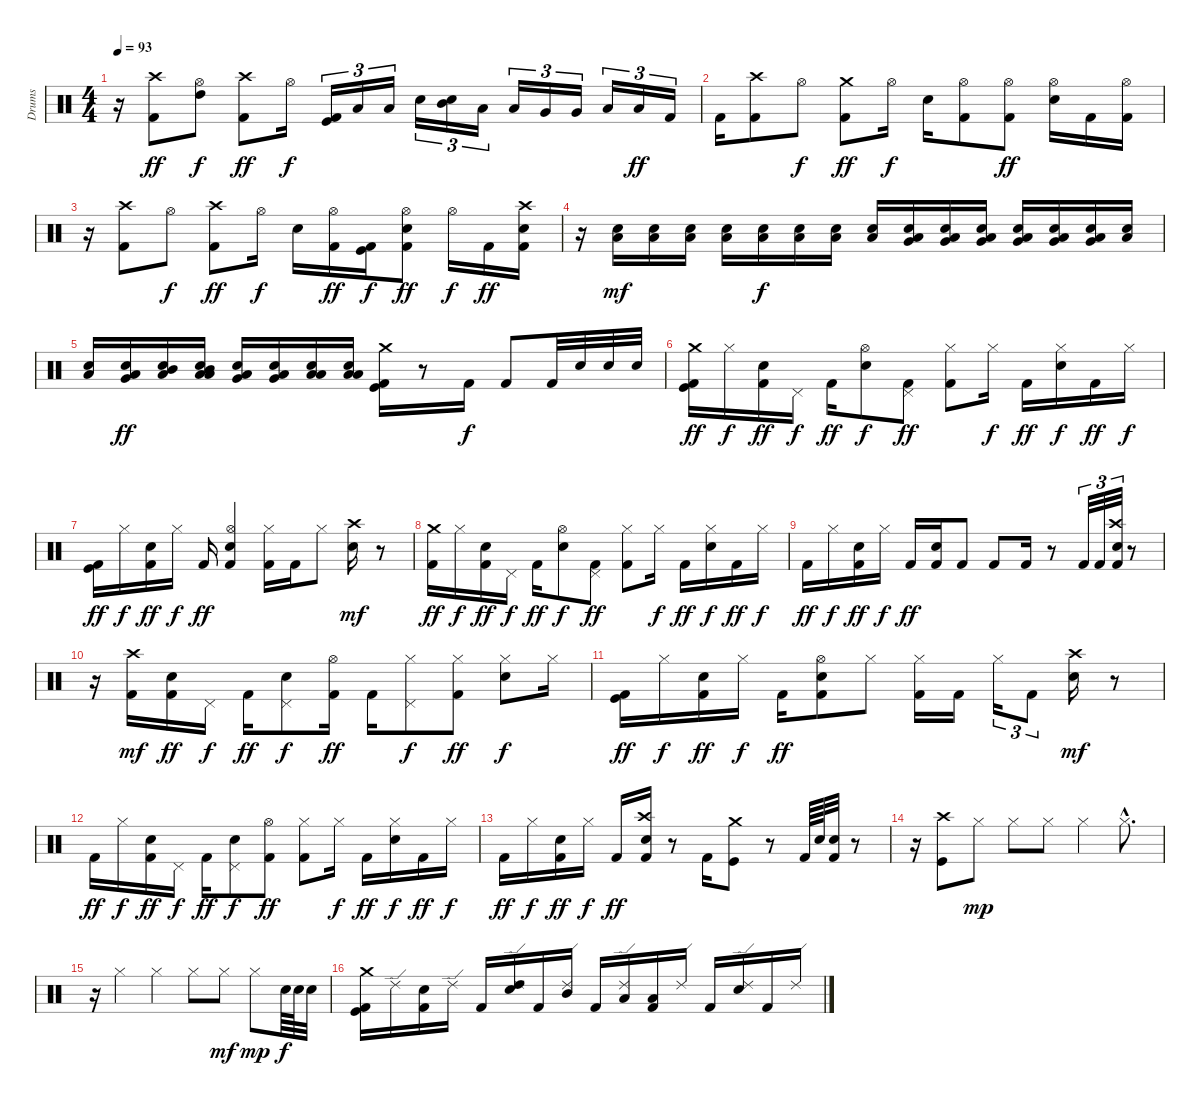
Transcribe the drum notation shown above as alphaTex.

\track ("Drums" "Drums") {instrument percussion}
\staff {score}
\articulation defaults
\ts (4 4)
\tempo 93
\clef neutral
\ks c
r.16{dy ff} ("Kick (hit) 2" "Crash high (hit)").8 ("Hi-Hat (open)" "High Tom (hit)").8{dy f} ("Crash high (hit)" "Kick (hit) 2").8{dy ff} "Hi-Hat (open)".16{dy f} ("Kick (hit) 2" "Kick (hit)").16{tu (3 2)} "Low Tom (hit)".16{tu (3 2)} "Low Tom (hit)".16{tu (3 2)} "Electric Snare (hit)".16{tu (3 2)} ("Electric Snare (hit)" "Mid Tom (hit)").16{tu (3 2)} "Low Tom (hit)".16{tu (3 2)} "Low Tom (hit)".16{tu (3 2)} "Very Low Tom (hit)".16{tu (3 2)} "Very Low Tom (hit)".16{tu (3 2)} "Low Floor Tom (hit)".16{tu (3 2)} "Low Floor Tom (hit)".16{tu (3 2) dy ff} "Kick (hit) 2".16{tu (3 2)} |
"Kick (hit) 2".16 ("Crash high (hit)" "Kick (hit) 2").8 "Hi-Hat (open)".8{dy f} ("Crash medium (hit)" "Kick (hit) 2").8{dy ff} "Hi-Hat (open)".16{dy f} "Electric Snare (hit)".16 ("Hi-Hat (open)" "Kick (hit) 2").8 ("Hi-Hat (open)" "Kick (hit) 2").8{dy ff} ("Hi-Hat (open)" "Electric Snare (hit)").16 "Kick (hit) 2".16 ("Kick (hit) 2" "Hi-Hat (open)").16 |
r.16 ("Kick (hit) 2" "Crash high (hit)").8 "Hi-Hat (open)".8{dy f} ("Kick (hit) 2" "Crash high (hit)").8{dy ff} "Hi-Hat (open)".16{dy f} "Electric Snare (hit)".16 ("Kick (hit) 2" "Hi-Hat (open)").16{dy ff} ("Kick (hit)" "Kick (hit) 2").16{dy f} ("Electric Snare (hit)" "Kick (hit) 2" "Hi-Hat (open)").8{dy ff} "Hi-Hat (open)".16{dy f} "Kick (hit) 2".16{dy ff} ("Kick (hit) 2" "Crash high (hit)" "Electric Snare (hit)").16 |
r.16 ("Electric Snare (hit)" "Low Tom (hit)").16{dy mf} ("Electric Snare (hit)" "Low Tom (hit)").16 ("Electric Snare (hit)" "Low Tom (hit)").16 ("Electric Snare (hit)" "Low Tom (hit)").16 ("Electric Snare (hit)" "Low Tom (hit)").16{dy f} ("Electric Snare (hit)" "Low Tom (hit)").16 ("Electric Snare (hit)" "Low Tom (hit)").16 ("Electric Snare (hit)" "Low Tom (hit)").16 ("Very Low Tom (hit)" "Electric Snare (hit)" "Low Tom (hit)").16 ("Very Low Tom (hit)" "Electric Snare (hit)" "Low Tom (hit)").16 ("Very Low Tom (hit)" "Electric Snare (hit)" "Low Tom (hit)").16 ("Very Low Tom (hit)" "Electric Snare (hit)" "Low Tom (hit)").16 ("Very Low Tom (hit)" "Electric Snare (hit)" "Low Tom (hit)").16 ("Very Low Tom (hit)" "Electric Snare (hit)" "Low Tom (hit)").16 ("Electric Snare (hit)" "Low Tom (hit)").16 |
("Electric Snare (hit)" "Low Tom (hit)").16 ("Very Low Tom (hit)" "Electric Snare (hit)" "Low Tom (hit)").16{dy ff} ("Mid Tom (hit)" "Electric Snare (hit)" "Low Tom (hit)").16 ("Mid Tom (hit)" "Low Floor Tom (hit)" "Electric Snare (hit)" "Low Tom (hit)").16 ("Very Low Tom (hit)" "Electric Snare (hit)" "Low Tom (hit)").16 ("Very Low Tom (hit)" "Electric Snare (hit)" "Low Tom (hit)").16 ("Low Floor Tom (hit)" "Electric Snare (hit)" "Low Tom (hit)").16 ("Low Floor Tom (hit)" "Electric Snare (hit)" "Low Tom (hit)").16 ("Kick (hit) 2" "Crash medium (hit)" "Kick (hit)").16 r.8 "Kick (hit) 2".16{dy f} "Kick (hit) 2".8 "Kick (hit) 2".32 "Snare (hit) 2".32 "Electric Snare (hit)".32 "Electric Snare (hit)".32 |
("Kick (hit)" "Kick (hit) 2" "Crash medium (hit)").16{dy ff} "Hi-Hat (closed)".16{dy f} ("Electric Snare (hit)" "Kick (hit) 2").16{dy ff} "Pedal Hi-Hat (hit)".16{dy f} "Kick (hit) 2".16{dy ff} ("Hi-Hat (open)" "Electric Snare (hit)").8{dy f} ("Pedal Hi-Hat (hit)" "Kick (hit) 2").8{dy ff} ("Hi-Hat (closed)" "Kick (hit) 2").8 "Hi-Hat (closed)".16{dy f} "Kick (hit) 2".16{dy ff} ("Hi-Hat (closed)" "Electric Snare (hit)").16{dy f} "Kick (hit) 2".16{dy ff} "Hi-Hat (closed)".16{dy f} |
("Kick (hit)" "Kick (hit) 2").16{dy ff} "Hi-Hat (closed)".16{dy f} ("Electric Snare (hit)" "Kick (hit) 2").16{dy ff} "Hi-Hat (closed)".16{dy f} "Kick (hit) 2".16{dy ff} ("Kick (hit) 2" "Hi-Hat (open)" "Electric Snare (hit)").4 ("Hi-Hat (closed)" "Kick (hit) 2").16 "Kick (hit) 2".16 "Hi-Hat (closed)".8 ("Electric Snare (hit)" "Crash high (hit)").16{dy mf} r.8 |
("Crash medium (hit)" "Kick (hit) 2").16{dy ff} "Hi-Hat (closed)".16{dy f} ("Electric Snare (hit)" "Kick (hit) 2").16{dy ff} "Pedal Hi-Hat (hit)".16{dy f} "Kick (hit) 2".16{dy ff} ("Hi-Hat (open)" "Electric Snare (hit)").8{dy f} ("Pedal Hi-Hat (hit)" "Kick (hit) 2").8{dy ff} ("Hi-Hat (closed)" "Kick (hit) 2").8 "Hi-Hat (closed)".16{dy f} "Kick (hit) 2".16{dy ff} ("Hi-Hat (closed)" "Electric Snare (hit)").16{dy f} "Kick (hit) 2".16{dy ff} "Hi-Hat (closed)".16{dy f} |
"Kick (hit) 2".16{dy ff} "Hi-Hat (closed)".16{dy f} ("Electric Snare (hit)" "Kick (hit) 2").16{dy ff} "Hi-Hat (closed)".16{dy f} "Kick (hit) 2".16{dy ff} ("Kick (hit) 2" "Electric Snare (hit)").16 "Kick (hit) 2".8 "Kick (hit) 2".8 "Kick (hit) 2".16 r.8 "Kick (hit) 2".32{tu (3 2)} "Kick (hit) 2".32{tu (3 2)} ("Kick (hit) 2" "Crash high (hit)" "Electric Snare (hit)").32{tu (3 2)} r.8 |
r.16 ("Kick (hit) 2" "Crash high (hit)").16{dy mf} ("Electric Snare (hit)" "Kick (hit) 2").16{dy ff} "Pedal Hi-Hat (hit)".16{dy f} "Kick (hit) 2".16{dy ff} ("Electric Snare (hit)" "Pedal Hi-Hat (hit)").8{dy f} ("Kick (hit) 2" "Hi-Hat (open)").16{dy ff} "Kick (hit) 2".16 ("Pedal Hi-Hat (hit)" "Hi-Hat (closed)").8{dy f} ("Hi-Hat (closed)" "Kick (hit) 2").8{dy ff} ("Hi-Hat (closed)" "Electric Snare (hit)").8{dy f} "Hi-Hat (closed)".16 |
("Kick (hit)" "Kick (hit) 2").16{dy ff} "Hi-Hat (closed)".16{dy f} ("Electric Snare (hit)" "Kick (hit) 2").16{dy ff} "Hi-Hat (closed)".16{dy f} "Kick (hit) 2".16{dy ff} ("Kick (hit) 2" "Hi-Hat (open)" "Electric Snare (hit)").8 "Hi-Hat (closed)".8 ("Hi-Hat (closed)" "Kick (hit) 2").16 "Kick (hit) 2".16 "Hi-Hat (closed)".16{tu (3 2)} "Kick (hit) 2".8{tu (3 2)} ("Electric Snare (hit)" "Crash high (hit)").16{dy mf} r.8 |
"Kick (hit) 2".16{dy ff} "Hi-Hat (closed)".16{dy f} ("Electric Snare (hit)" "Kick (hit) 2").16{dy ff} "Pedal Hi-Hat (hit)".16{dy f} "Kick (hit) 2".16{dy ff} ("Electric Snare (hit)" "Pedal Hi-Hat (hit)").8{dy f} ("Kick (hit) 2" "Hi-Hat (open)").8{dy ff} ("Hi-Hat (closed)" "Kick (hit) 2").8 "Hi-Hat (closed)".16{dy f} "Kick (hit) 2".16{dy ff} ("Hi-Hat (closed)" "Electric Snare (hit)").16{dy f} "Kick (hit) 2".16{dy ff} "Hi-Hat (closed)".16{dy f} |
"Kick (hit) 2".16{dy ff} "Hi-Hat (closed)".16{dy f} ("Electric Snare (hit)" "Kick (hit) 2").16{dy ff} "Hi-Hat (closed)".16{dy f} "Kick (hit) 2".16{dy ff} ("Crash high (hit)" "Kick (hit) 2" "Electric Snare (hit)").16 r.8 "Kick (hit) 2".16 ("Kick (hit)" "Crash medium (hit)").8 r.8 "Kick (hit) 2".64 "Electric Snare (hit)".64 ("Kick (hit) 2" "Electric Snare (hit)").32 r.8 |
r.16 ("Crash high (hit)" "Kick (hit)").8 "Hi-Hat (closed)".8{dy mp} "Hi-Hat (closed)".8 "Hi-Hat (closed)".8 "Hi-Hat (closed)".4 "Hi-Hat (closed)"{hac}.8{d} |
r.16 "Hi-Hat (closed)".4 "Hi-Hat (closed)".4 "Hi-Hat (closed)".8 "Hi-Hat (closed)".8{dy mf} "Hi-Hat (closed)".8{dy mp} "Electric Snare (hit)".64{dy f} "Electric Snare (hit)".64 "Electric Snare (hit)".32 |
("Kick (hit)" "Kick (hit) 2" "Crash medium (hit)").16 "Ride (edge) 2".16 ("Electric Snare (hit)" "Kick (hit) 2").16 "Ride (edge) 2".16 "Kick (hit) 2".16 ("Ride (edge) 2" "High Tom (hit)" "Electric Snare (hit)").16 "Kick (hit) 2".16 ("Ride (edge) 2" "Mid Tom (hit)").16 "Kick (hit) 2".16 ("Low Tom (hit)" "Ride (edge) 2").16 ("Kick (hit) 2" "Low Tom (hit)").16 "Ride (edge) 2".16 "Kick (hit) 2".16 ("Electric Snare (hit)" "Ride (edge) 2").16 "Kick (hit) 2".16 "Ride (edge) 2".16
